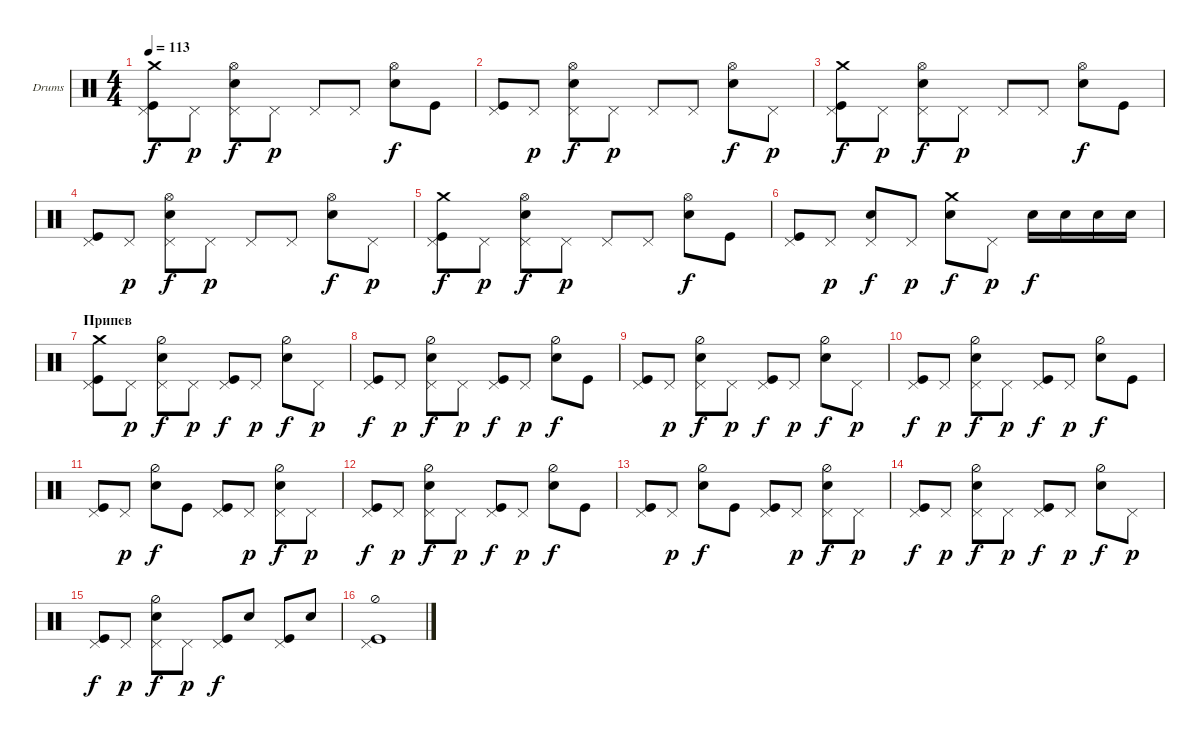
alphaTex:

\defaultSystemsLayout 4
\bracketExtendMode groupsimilarinstruments
\firstSystemTrackNameOrientation horizontal
\otherSystemsTrackNameOrientation horizontal
\track ("Е. Кулаков" "Drums") {instrument percussion}
\staff {score}
\articulation defaults
\ts (4 4)
\tempo 113
\clef neutral
\ks c
("Kick (hit)" "Pedal Hi-Hat (hit)" "Crash medium (hit)").8{dy f} "Pedal Hi-Hat (hit)".8{dy p} ("Snare (hit) 2" "Pedal Hi-Hat (hit)" "Hi-Hat (open)").8{dy f} "Pedal Hi-Hat (hit)".8{dy p} "Pedal Hi-Hat (hit)".8 "Pedal Hi-Hat (hit)".8 ("Snare (hit) 2" "Hi-Hat (open)").8{dy f} "Kick (hit)".8 |
("Kick (hit)" "Pedal Hi-Hat (hit)").8 "Pedal Hi-Hat (hit)".8{dy p} ("Snare (hit) 2" "Pedal Hi-Hat (hit)" "Hi-Hat (open)").8{dy f} "Pedal Hi-Hat (hit)".8{dy p} "Pedal Hi-Hat (hit)".8 "Pedal Hi-Hat (hit)".8 ("Snare (hit) 2" "Hi-Hat (open)").8{dy f} "Pedal Hi-Hat (hit)".8{dy p} |
("Kick (hit)" "Pedal Hi-Hat (hit)" "Crash medium (hit)").8{dy f} "Pedal Hi-Hat (hit)".8{dy p} ("Snare (hit) 2" "Pedal Hi-Hat (hit)" "Hi-Hat (open)").8{dy f} "Pedal Hi-Hat (hit)".8{dy p} "Pedal Hi-Hat (hit)".8 "Pedal Hi-Hat (hit)".8 ("Snare (hit) 2" "Hi-Hat (open)").8{dy f} "Kick (hit)".8 |
("Kick (hit)" "Pedal Hi-Hat (hit)").8 "Pedal Hi-Hat (hit)".8{dy p} ("Snare (hit) 2" "Pedal Hi-Hat (hit)" "Hi-Hat (open)").8{dy f} "Pedal Hi-Hat (hit)".8{dy p} "Pedal Hi-Hat (hit)".8 "Pedal Hi-Hat (hit)".8 ("Snare (hit) 2" "Hi-Hat (open)").8{dy f} "Pedal Hi-Hat (hit)".8{dy p} |
("Kick (hit)" "Pedal Hi-Hat (hit)" "Crash medium (hit)").8{dy f} "Pedal Hi-Hat (hit)".8{dy p} ("Snare (hit) 2" "Pedal Hi-Hat (hit)" "Hi-Hat (open)").8{dy f} "Pedal Hi-Hat (hit)".8{dy p} "Pedal Hi-Hat (hit)".8 "Pedal Hi-Hat (hit)".8 ("Snare (hit) 2" "Hi-Hat (open)").8{dy f} "Kick (hit)".8 |
("Kick (hit)" "Pedal Hi-Hat (hit)").8 "Pedal Hi-Hat (hit)".8{dy p} ("Snare (hit) 2" "Pedal Hi-Hat (hit)").8{dy f} "Pedal Hi-Hat (hit)".8{dy p} ("Snare (hit) 2" "Crash medium (hit)").8{dy f} "Pedal Hi-Hat (hit)".8{dy p} "Snare (hit) 2".16{dy f} "Snare (hit) 2".16 "Snare (hit) 2".16 "Snare (hit) 2".16 |
\section ("" "Припев")
("Kick (hit)" "Pedal Hi-Hat (hit)" "Crash medium (hit)").8 "Pedal Hi-Hat (hit)".8{dy p} ("Snare (hit) 2" "Pedal Hi-Hat (hit)" "Hi-Hat (half)").8{dy f} "Pedal Hi-Hat (hit)".8{dy p} ("Pedal Hi-Hat (hit)" "Kick (hit)").8{dy f} "Pedal Hi-Hat (hit)".8{dy p} ("Snare (hit) 2" "Hi-Hat (half)").8{dy f} "Pedal Hi-Hat (hit)".8{dy p} |
("Kick (hit)" "Pedal Hi-Hat (hit)").8{dy f} "Pedal Hi-Hat (hit)".8{dy p} ("Snare (hit) 2" "Pedal Hi-Hat (hit)" "Hi-Hat (half)").8{dy f} "Pedal Hi-Hat (hit)".8{dy p} ("Pedal Hi-Hat (hit)" "Kick (hit)").8{dy f} "Pedal Hi-Hat (hit)".8{dy p} ("Snare (hit) 2" "Hi-Hat (half)").8{dy f} "Kick (hit)".8 |
("Kick (hit)" "Pedal Hi-Hat (hit)").8 "Pedal Hi-Hat (hit)".8{dy p} ("Snare (hit) 2" "Pedal Hi-Hat (hit)" "Hi-Hat (half)").8{dy f} "Pedal Hi-Hat (hit)".8{dy p} ("Pedal Hi-Hat (hit)" "Kick (hit)").8{dy f} "Pedal Hi-Hat (hit)".8{dy p} ("Snare (hit) 2" "Hi-Hat (half)").8{dy f} "Pedal Hi-Hat (hit)".8{dy p} |
("Kick (hit)" "Pedal Hi-Hat (hit)").8{dy f} "Pedal Hi-Hat (hit)".8{dy p} ("Snare (hit) 2" "Pedal Hi-Hat (hit)" "Hi-Hat (half)").8{dy f} "Pedal Hi-Hat (hit)".8{dy p} ("Pedal Hi-Hat (hit)" "Kick (hit)").8{dy f} "Pedal Hi-Hat (hit)".8{dy p} ("Snare (hit) 2" "Hi-Hat (half)").8{dy f} "Kick (hit)".8 |
("Pedal Hi-Hat (hit)" "Kick (hit)").8 "Pedal Hi-Hat (hit)".8{dy p} ("Snare (hit) 2" "Hi-Hat (half)").8{dy f} "Kick (hit)".8 ("Pedal Hi-Hat (hit)" "Kick (hit)").8 "Pedal Hi-Hat (hit)".8{dy p} ("Pedal Hi-Hat (hit)" "Snare (hit) 2" "Hi-Hat (half)").8{dy f} "Pedal Hi-Hat (hit)".8{dy p} |
("Kick (hit)" "Pedal Hi-Hat (hit)").8{dy f} "Pedal Hi-Hat (hit)".8{dy p} ("Snare (hit) 2" "Pedal Hi-Hat (hit)" "Hi-Hat (half)").8{dy f} "Pedal Hi-Hat (hit)".8{dy p} ("Pedal Hi-Hat (hit)" "Kick (hit)").8{dy f} "Pedal Hi-Hat (hit)".8{dy p} ("Snare (hit) 2" "Hi-Hat (half)").8{dy f} "Kick (hit)".8 |
("Pedal Hi-Hat (hit)" "Kick (hit)").8 "Pedal Hi-Hat (hit)".8{dy p} ("Snare (hit) 2" "Hi-Hat (half)").8{dy f} "Kick (hit)".8 ("Pedal Hi-Hat (hit)" "Kick (hit)").8 "Pedal Hi-Hat (hit)".8{dy p} ("Pedal Hi-Hat (hit)" "Snare (hit) 2" "Hi-Hat (half)").8{dy f} "Pedal Hi-Hat (hit)".8{dy p} |
("Kick (hit)" "Pedal Hi-Hat (hit)").8{dy f} "Pedal Hi-Hat (hit)".8{dy p} ("Snare (hit) 2" "Pedal Hi-Hat (hit)" "Hi-Hat (half)").8{dy f} "Pedal Hi-Hat (hit)".8{dy p} ("Pedal Hi-Hat (hit)" "Kick (hit)").8{dy f} "Pedal Hi-Hat (hit)".8{dy p} ("Snare (hit) 2" "Hi-Hat (half)").8{dy f} "Pedal Hi-Hat (hit)".8{dy p} |
("Kick (hit)" "Pedal Hi-Hat (hit)").8{dy f} "Pedal Hi-Hat (hit)".8{dy p} ("Snare (hit) 2" "Pedal Hi-Hat (hit)" "Hi-Hat (half)").8{dy f} "Pedal Hi-Hat (hit)".8{dy p} ("Pedal Hi-Hat (hit)" "Kick (hit)").8{dy f} "Snare (hit) 2".8 ("Pedal Hi-Hat (hit)" "Kick (hit)").8 "Snare (hit) 2".8 |
("Pedal Hi-Hat (hit)" "Kick (hit)" "Hi-Hat (half)").1
